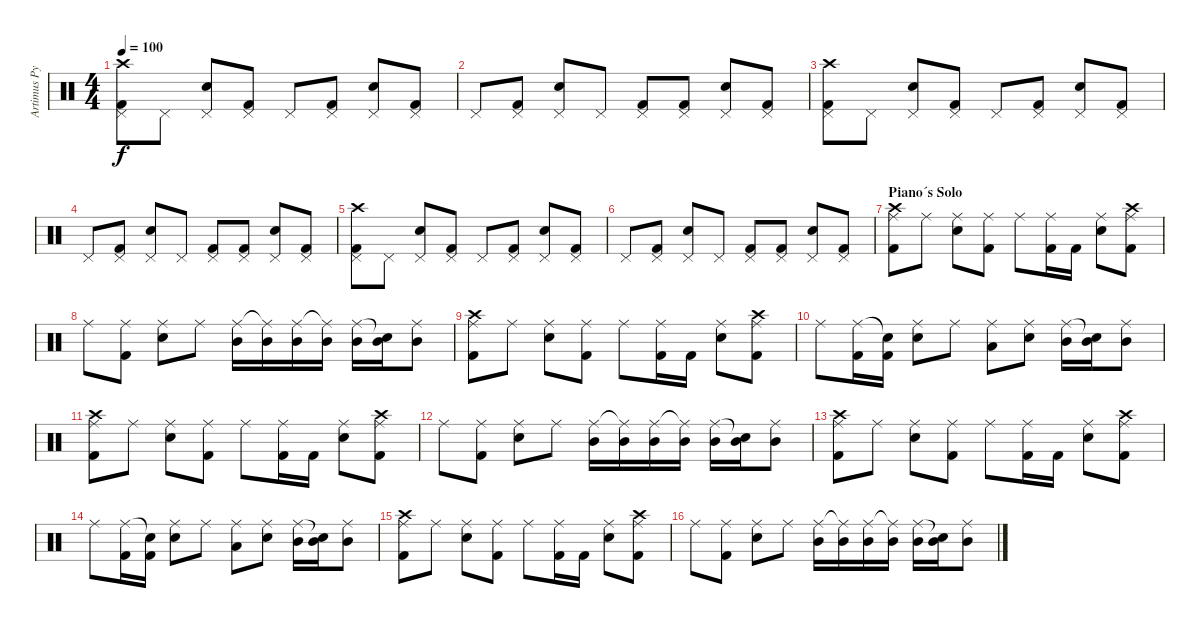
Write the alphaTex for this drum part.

\track ("Artimus Pyle " "Artimus Py") {instrument percussion}
\staff {score}
\articulation defaults
\ts (4 4)
\tempo 100
\clef neutral
\ks c
("Crash high (hit)" "Pedal Hi-Hat (hit)" "Kick (hit) 2").8{dy f} "Pedal Hi-Hat (hit)".8 ("Pedal Hi-Hat (hit)" "Electric Snare (hit)").8 ("Pedal Hi-Hat (hit)" "Kick (hit) 2").8 "Pedal Hi-Hat (hit)".8 ("Pedal Hi-Hat (hit)" "Kick (hit) 2").8 ("Pedal Hi-Hat (hit)" "Electric Snare (hit)").8 ("Pedal Hi-Hat (hit)" "Kick (hit) 2").8 |
"Pedal Hi-Hat (hit)".8 ("Pedal Hi-Hat (hit)" "Kick (hit) 2").8 ("Pedal Hi-Hat (hit)" "Electric Snare (hit)").8 "Pedal Hi-Hat (hit)".8 ("Pedal Hi-Hat (hit)" "Kick (hit) 2").8 ("Pedal Hi-Hat (hit)" "Kick (hit) 2").8 ("Pedal Hi-Hat (hit)" "Electric Snare (hit)").8 ("Pedal Hi-Hat (hit)" "Kick (hit) 2").8 |
("Crash high (hit)" "Pedal Hi-Hat (hit)" "Kick (hit) 2").8 "Pedal Hi-Hat (hit)".8 ("Pedal Hi-Hat (hit)" "Electric Snare (hit)").8 ("Pedal Hi-Hat (hit)" "Kick (hit) 2").8 "Pedal Hi-Hat (hit)".8 ("Pedal Hi-Hat (hit)" "Kick (hit) 2").8 ("Pedal Hi-Hat (hit)" "Electric Snare (hit)").8 ("Pedal Hi-Hat (hit)" "Kick (hit) 2").8 |
"Pedal Hi-Hat (hit)".8 ("Pedal Hi-Hat (hit)" "Kick (hit) 2").8 ("Pedal Hi-Hat (hit)" "Electric Snare (hit)").8 "Pedal Hi-Hat (hit)".8 ("Pedal Hi-Hat (hit)" "Kick (hit) 2").8 ("Pedal Hi-Hat (hit)" "Kick (hit) 2").8 ("Pedal Hi-Hat (hit)" "Electric Snare (hit)").8 ("Pedal Hi-Hat (hit)" "Kick (hit) 2").8 |
("Crash high (hit)" "Pedal Hi-Hat (hit)" "Kick (hit) 2").8 "Pedal Hi-Hat (hit)".8 ("Pedal Hi-Hat (hit)" "Electric Snare (hit)").8 ("Pedal Hi-Hat (hit)" "Kick (hit) 2").8 "Pedal Hi-Hat (hit)".8 ("Pedal Hi-Hat (hit)" "Kick (hit) 2").8 ("Pedal Hi-Hat (hit)" "Electric Snare (hit)").8 ("Pedal Hi-Hat (hit)" "Kick (hit) 2").8 |
"Pedal Hi-Hat (hit)".8 ("Pedal Hi-Hat (hit)" "Kick (hit) 2").8 ("Pedal Hi-Hat (hit)" "Electric Snare (hit)").8 "Pedal Hi-Hat (hit)".8 ("Pedal Hi-Hat (hit)" "Kick (hit) 2").8 ("Pedal Hi-Hat (hit)" "Kick (hit) 2").8 ("Pedal Hi-Hat (hit)" "Electric Snare (hit)").8 ("Pedal Hi-Hat (hit)" "Kick (hit) 2").8 |
\section ("" "Piano´s Solo")
("Crash high (hit)" "Ride (middle)" "Kick (hit) 2").8 "Ride (middle)".8 ("Ride (middle)" "Electric Snare (hit)").8 ("Ride (middle)" "Kick (hit) 2").8 "Ride (middle)".8 ("Ride (middle)" "Kick (hit) 2").16 "Kick (hit) 2".16 ("Ride (middle)" "Electric Snare (hit)").8 ("Crash high (hit)" "Ride (middle)" "Kick (hit) 2").8 |
"Ride (middle)".8 ("Ride (middle)" "Kick (hit) 2").8 ("Ride (middle)" "Electric Snare (hit)").8 "Ride (middle)".8 ("Ride (middle)" "Mid Tom (hit)").16 ("Ride (middle)"{t} "Mid Tom (hit)").16 ("Ride (middle)" "Mid Tom (hit)").16 ("Ride (middle)"{t} "Mid Tom (hit)").16 ("Ride (middle)" "Mid Tom (hit)").16 ("Snare (hit)"{t} "Mid Tom (hit)").16 ("Ride (middle)" "Mid Tom (hit)").8 |
("Crash high (hit)" "Ride (middle)" "Kick (hit) 2").8 "Ride (middle)".8 ("Ride (middle)" "Electric Snare (hit)").8 ("Ride (middle)" "Kick (hit) 2").8 "Ride (middle)".8 ("Ride (middle)" "Kick (hit) 2").16 "Kick (hit) 2".16 ("Ride (middle)" "Electric Snare (hit)").8 ("Crash high (hit)" "Ride (middle)" "Kick (hit) 2").8 |
"Ride (middle)".8 ("Ride (middle)" "Kick (hit) 2").16 ("Snare (hit)"{t} "Kick (hit) 2").16 ("Ride (middle)" "Electric Snare (hit)").8 "Ride (middle)".8 ("Ride (middle)" "Low Tom (hit)").8 ("Ride (middle)" "Electric Snare (hit)").8 ("Ride (middle)" "Mid Tom (hit)").16 ("Snare (hit)"{t} "Mid Tom (hit)").16 ("Ride (middle)" "Mid Tom (hit)").8 |
("Crash high (hit)" "Ride (middle)" "Kick (hit) 2").8 "Ride (middle)".8 ("Ride (middle)" "Electric Snare (hit)").8 ("Ride (middle)" "Kick (hit) 2").8 "Ride (middle)".8 ("Ride (middle)" "Kick (hit) 2").16 "Kick (hit) 2".16 ("Ride (middle)" "Electric Snare (hit)").8 ("Crash high (hit)" "Ride (middle)" "Kick (hit) 2").8 |
"Ride (middle)".8 ("Ride (middle)" "Kick (hit) 2").8 ("Ride (middle)" "Electric Snare (hit)").8 "Ride (middle)".8 ("Ride (middle)" "Mid Tom (hit)").16 ("Ride (middle)"{t} "Mid Tom (hit)").16 ("Ride (middle)" "Mid Tom (hit)").16 ("Ride (middle)"{t} "Mid Tom (hit)").16 ("Ride (middle)" "Mid Tom (hit)").16 ("Snare (hit)"{t} "Mid Tom (hit)").16 ("Ride (middle)" "Mid Tom (hit)").8 |
("Crash high (hit)" "Ride (middle)" "Kick (hit) 2").8 "Ride (middle)".8 ("Ride (middle)" "Electric Snare (hit)").8 ("Ride (middle)" "Kick (hit) 2").8 "Ride (middle)".8 ("Ride (middle)" "Kick (hit) 2").16 "Kick (hit) 2".16 ("Ride (middle)" "Electric Snare (hit)").8 ("Crash high (hit)" "Ride (middle)" "Kick (hit) 2").8 |
"Ride (middle)".8 ("Ride (middle)" "Kick (hit) 2").16 ("Snare (hit)"{t} "Kick (hit) 2").16 ("Ride (middle)" "Electric Snare (hit)").8 "Ride (middle)".8 ("Ride (middle)" "Low Tom (hit)").8 ("Ride (middle)" "Electric Snare (hit)").8 ("Ride (middle)" "Mid Tom (hit)").16 ("Snare (hit)"{t} "Mid Tom (hit)").16 ("Ride (middle)" "Mid Tom (hit)").8 |
("Crash high (hit)" "Ride (middle)" "Kick (hit) 2").8 "Ride (middle)".8 ("Ride (middle)" "Electric Snare (hit)").8 ("Ride (middle)" "Kick (hit) 2").8 "Ride (middle)".8 ("Ride (middle)" "Kick (hit) 2").16 "Kick (hit) 2".16 ("Ride (middle)" "Electric Snare (hit)").8 ("Crash high (hit)" "Ride (middle)" "Kick (hit) 2").8 |
"Ride (middle)".8 ("Ride (middle)" "Kick (hit) 2").8 ("Ride (middle)" "Electric Snare (hit)").8 "Ride (middle)".8 ("Ride (middle)" "Mid Tom (hit)").16 ("Ride (middle)"{t} "Mid Tom (hit)").16 ("Ride (middle)" "Mid Tom (hit)").16 ("Ride (middle)"{t} "Mid Tom (hit)").16 ("Ride (middle)" "Mid Tom (hit)").16 ("Snare (hit)"{t} "Mid Tom (hit)").16 ("Ride (middle)" "Mid Tom (hit)").8
